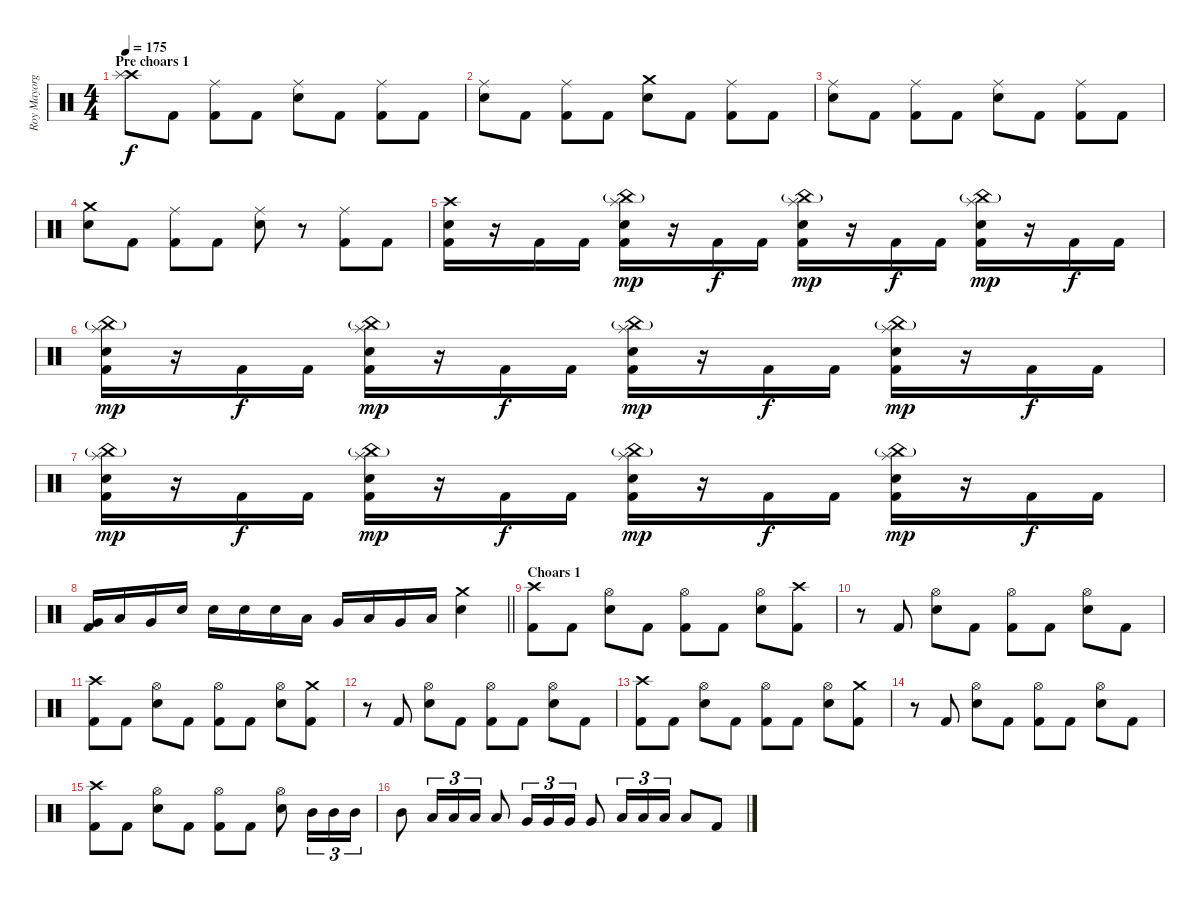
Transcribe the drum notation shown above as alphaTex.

\track ("Roy Mayorga" "Roy Mayorg") {instrument percussion}
\staff {score}
\articulation defaults
\ts (4 4)
\section ("" "Pre choars 1")
\tempo 175
\clef neutral
\ks c
("Crash high (hit)" "Splash (hit)").8{dy f} "Kick (hit) 2".8 ("Ride (middle)" "Kick (hit) 2").8 "Kick (hit) 2".8 ("Ride (middle)" "Electric Snare (hit)").8 "Kick (hit) 2".8 ("Ride (middle)" "Kick (hit) 2").8 "Kick (hit) 2".8 |
("Ride (middle)" "Electric Snare (hit)").8 "Kick (hit) 2".8 ("Ride (middle)" "Kick (hit) 2").8 "Kick (hit) 2".8 ("Crash medium (hit)" "Electric Snare (hit)").8 "Kick (hit) 2".8 ("Ride (middle)" "Kick (hit) 2").8 "Kick (hit) 2".8 |
("Ride (middle)" "Electric Snare (hit)").8 "Kick (hit) 2".8 ("Ride (middle)" "Kick (hit) 2").8 "Kick (hit) 2".8 ("Ride (middle)" "Electric Snare (hit)").8 "Kick (hit) 2".8 ("Ride (middle)" "Kick (hit) 2").8 "Kick (hit) 2".8 |
("Crash medium (hit)" "Electric Snare (hit)").8 "Kick (hit) 2".8 ("Ride (middle)" "Kick (hit) 2").8 "Kick (hit) 2".8 ("Ride (middle)" "Electric Snare (hit)").8 r.8 ("Ride (middle)" "Kick (hit) 2").8 "Kick (hit) 2".8 |
("Crash high (hit)" "Electric Snare (hit)" "Kick (hit) 2").16 r.16 "Kick (hit) 2".16 "Kick (hit) 2".16 ("China (hit)"{g} "Splash (hit)" "Electric Snare (hit)" "Kick (hit) 2").16{dy mp} r.16 "Kick (hit) 2".16{dy f} "Kick (hit) 2".16 ("China (hit)"{g} "Splash (hit)" "Electric Snare (hit)" "Kick (hit) 2").16{dy mp} r.16 "Kick (hit) 2".16{dy f} "Kick (hit) 2".16 ("China (hit)"{g} "Splash (hit)" "Electric Snare (hit)" "Kick (hit) 2").16{dy mp} r.16 "Kick (hit) 2".16{dy f} "Kick (hit) 2".16 |
("China (hit)"{g} "Splash (hit)" "Electric Snare (hit)" "Kick (hit) 2").16{dy mp} r.16 "Kick (hit) 2".16{dy f} "Kick (hit) 2".16 ("China (hit)"{g} "Splash (hit)" "Electric Snare (hit)" "Kick (hit) 2").16{dy mp} r.16 "Kick (hit) 2".16{dy f} "Kick (hit) 2".16 ("China (hit)"{g} "Splash (hit)" "Electric Snare (hit)" "Kick (hit) 2").16{dy mp} r.16 "Kick (hit) 2".16{dy f} "Kick (hit) 2".16 ("China (hit)"{g} "Splash (hit)" "Electric Snare (hit)" "Kick (hit) 2").16{dy mp} r.16 "Kick (hit) 2".16{dy f} "Kick (hit) 2".16 |
("China (hit)"{g} "Splash (hit)" "Electric Snare (hit)" "Kick (hit) 2").16{dy mp} r.16 "Kick (hit) 2".16{dy f} "Kick (hit) 2".16 ("China (hit)"{g} "Splash (hit)" "Electric Snare (hit)" "Kick (hit) 2").16{dy mp} r.16 "Kick (hit) 2".16{dy f} "Kick (hit) 2".16 ("China (hit)"{g} "Splash (hit)" "Electric Snare (hit)" "Kick (hit) 2").16{dy mp} r.16 "Kick (hit) 2".16{dy f} "Kick (hit) 2".16 ("China (hit)"{g} "Splash (hit)" "Electric Snare (hit)" "Kick (hit) 2").16{dy mp} r.16 "Kick (hit) 2".16{dy f} "Kick (hit) 2".16 |
\barLineRight lightlight
("Very Low Tom (hit)" "Kick (hit) 2").16 "Low Tom (hit)".16 "Very Low Tom (hit)".16 "Electric Snare (hit)".16 "Electric Snare (hit)".16 "Electric Snare (hit)".16 "Electric Snare (hit)".16 "Low Tom (hit)".16 "Very Low Tom (hit)".16 "Low Tom (hit)".16 "Very Low Tom (hit)".16 "Low Floor Tom (hit)".16 ("Crash medium (hit)" "Electric Snare (hit)").4 |
\section ("" "Choars 1")
("Crash high (hit)" "Kick (hit) 2").8 "Kick (hit) 2".8 ("Hi-Hat (open)" "Electric Snare (hit)").8 "Kick (hit) 2".8 ("Hi-Hat (open)" "Kick (hit) 2").8 "Kick (hit) 2".8 ("Hi-Hat (open)" "Electric Snare (hit)").8 ("Crash high (hit)" "Kick (hit) 2").8 |
r.8 "Kick (hit) 2".8 ("Hi-Hat (open)" "Electric Snare (hit)").8 "Kick (hit) 2".8 ("Hi-Hat (open)" "Kick (hit) 2").8 "Kick (hit) 2".8 ("Hi-Hat (open)" "Electric Snare (hit)").8 "Kick (hit) 2".8 |
("Crash high (hit)" "Kick (hit) 2").8 "Kick (hit) 2".8 ("Hi-Hat (open)" "Electric Snare (hit)").8 "Kick (hit) 2".8 ("Hi-Hat (open)" "Kick (hit) 2").8 "Kick (hit) 2".8 ("Hi-Hat (open)" "Electric Snare (hit)").8 ("Crash medium (hit)" "Kick (hit) 2").8 |
r.8 "Kick (hit) 2".8 ("Hi-Hat (open)" "Electric Snare (hit)").8 "Kick (hit) 2".8 ("Hi-Hat (open)" "Kick (hit) 2").8 "Kick (hit) 2".8 ("Hi-Hat (open)" "Electric Snare (hit)").8 "Kick (hit) 2".8 |
("Crash high (hit)" "Kick (hit) 2").8 "Kick (hit) 2".8 ("Hi-Hat (open)" "Electric Snare (hit)").8 "Kick (hit) 2".8 ("Hi-Hat (open)" "Kick (hit) 2").8 "Kick (hit) 2".8 ("Hi-Hat (open)" "Electric Snare (hit)").8 ("Crash medium (hit)" "Kick (hit) 2").8 |
r.8 "Kick (hit) 2".8 ("Hi-Hat (open)" "Electric Snare (hit)").8 "Kick (hit) 2".8 ("Hi-Hat (open)" "Kick (hit) 2").8 "Kick (hit) 2".8 ("Hi-Hat (open)" "Electric Snare (hit)").8 "Kick (hit) 2".8 |
("Crash high (hit)" "Kick (hit) 2").8 "Kick (hit) 2".8 ("Hi-Hat (open)" "Electric Snare (hit)").8 "Kick (hit) 2".8 ("Hi-Hat (open)" "Kick (hit) 2").8 "Kick (hit) 2".8 ("Hi-Hat (open)" "Electric Snare (hit)").8 "Mid Tom (hit)".16{tu (3 2)} "Mid Tom (hit)".16{tu (3 2)} "Mid Tom (hit)".16{tu (3 2)} |
"Mid Tom (hit)".8 "Low Tom (hit)".16{tu (3 2)} "Low Tom (hit)".16{tu (3 2)} "Low Tom (hit)".16{tu (3 2)} "Low Tom (hit)".8 "Very Low Tom (hit)".16{tu (3 2)} "Very Low Tom (hit)".16{tu (3 2)} "Very Low Tom (hit)".16{tu (3 2)} "Very Low Tom (hit)".8 "Low Floor Tom (hit)".16{tu (3 2)} "Low Floor Tom (hit)".16{tu (3 2)} "Low Floor Tom (hit)".16{tu (3 2)} "Low Floor Tom (hit)".8 "Kick (hit) 2".8
